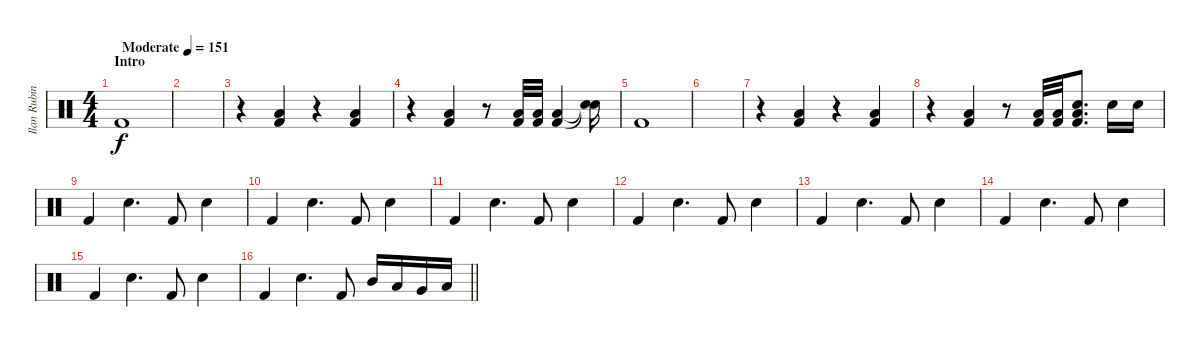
\track ("Ilan Rubin [Drums]" "Ilan Rubin") {instrument percussion}
\staff {score}
\articulation defaults
\ts (4 4)
\section ("" "Intro")
\tempo (151 "Moderate")
\clef neutral
\ks c "Kick (hit) 2".1{dy f}
|
|
r.4 ("Low Floor Tom (hit)" "Kick (hit) 2").4 r.4 ("Low Floor Tom (hit)" "Kick (hit) 2").4 |
r.4 ("Low Floor Tom (hit)" "Kick (hit) 2").4 r.8 ("Low Floor Tom (hit)" "Kick (hit) 2").32 ("Low Floor Tom (hit)" "Kick (hit) 2").32 ("Low Floor Tom (hit)" "Kick (hit) 2").4 ("Snare (hit)"{t} "Snare (hit)"{t}).16 |
"Kick (hit) 2".1 |
|
r.4 ("Low Floor Tom (hit)" "Kick (hit) 2").4 r.4 ("Low Floor Tom (hit)" "Kick (hit) 2").4 |
r.4 ("Low Floor Tom (hit)" "Kick (hit) 2").4 r.8 ("Low Floor Tom (hit)" "Kick (hit) 2").32 ("Low Floor Tom (hit)" "Kick (hit) 2").32 ("Snare (hit) 2" "Low Floor Tom (hit)" "Kick (hit) 2").8{d} "Snare (hit) 2".16 "Snare (hit) 2".16 |
"Kick (hit) 2".4 "Snare (hit) 2".4{d} "Kick (hit) 2".8 "Snare (hit) 2".4 |
"Kick (hit) 2".4 "Snare (hit) 2".4{d} "Kick (hit) 2".8 "Snare (hit) 2".4 |
"Kick (hit) 2".4 "Snare (hit) 2".4{d} "Kick (hit) 2".8 "Snare (hit) 2".4 |
"Kick (hit) 2".4 "Snare (hit) 2".4{d} "Kick (hit) 2".8 "Snare (hit) 2".4 |
"Kick (hit) 2".4 "Snare (hit) 2".4{d} "Kick (hit) 2".8 "Snare (hit) 2".4 |
"Kick (hit) 2".4 "Snare (hit) 2".4{d} "Kick (hit) 2".8 "Snare (hit) 2".4 |
"Kick (hit) 2".4 "Snare (hit) 2".4{d} "Kick (hit) 2".8 "Snare (hit) 2".4 |
\barLineRight lightlight "Kick (hit) 2".4 "Snare (hit) 2".4{d} "Kick (hit) 2".8 "Mid Tom (hit)".16 "Low Tom (hit)".16 "Very Low Tom (hit)".16 "Low Floor Tom (hit)".16
